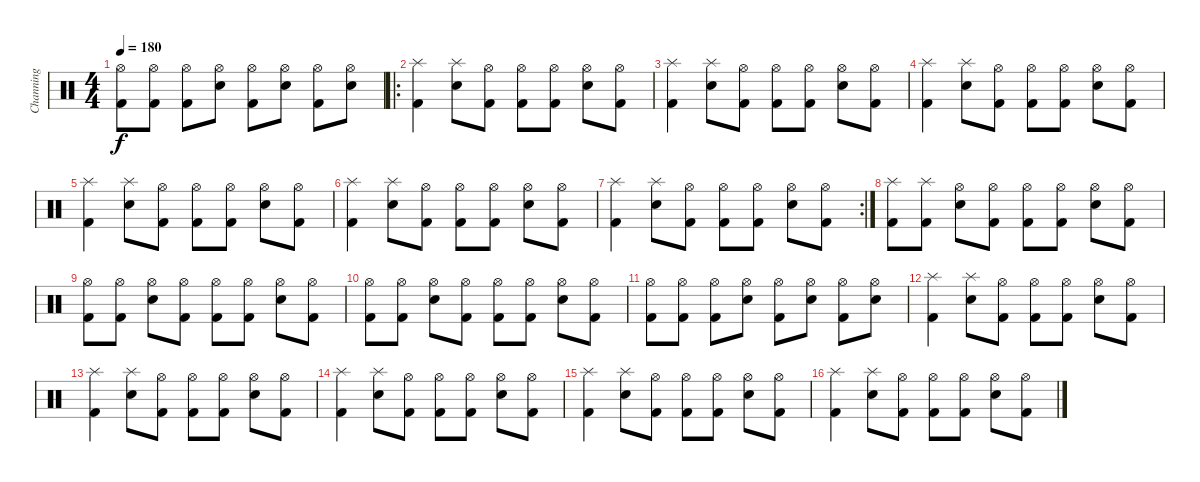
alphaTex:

\track ("Channing" "Channing") {instrument percussion}
\staff {score}
\articulation defaults
\ts (4 4)
\tempo 180
\clef neutral
\ks c
("Hi-Hat (open)" "Kick (hit) 2").8{dy f} ("Hi-Hat (open)" "Kick (hit) 2").8 ("Hi-Hat (open)" "Kick (hit) 2").8 ("Hi-Hat (open)" "Snare (hit) 2").8 ("Hi-Hat (open)" "Kick (hit) 2").8 ("Hi-Hat (open)" "Snare (hit) 2").8 ("Hi-Hat (open)" "Kick (hit) 2").8 ("Hi-Hat (open)" "Snare (hit) 2").8 |
\ro
("Splash (hit)" "Kick (hit) 2").4 ("Splash (hit)" "Snare (hit) 2").8 ("Hi-Hat (open)" "Kick (hit) 2").8 ("Hi-Hat (open)" "Kick (hit) 2").8 ("Hi-Hat (open)" "Kick (hit) 2").8 ("Hi-Hat (open)" "Snare (hit) 2").8 ("Hi-Hat (open)" "Kick (hit) 2").8 |
("Splash (hit)" "Kick (hit) 2").4 ("Splash (hit)" "Snare (hit) 2").8 ("Hi-Hat (open)" "Kick (hit) 2").8 ("Hi-Hat (open)" "Kick (hit) 2").8 ("Hi-Hat (open)" "Kick (hit) 2").8 ("Hi-Hat (open)" "Snare (hit) 2").8 ("Hi-Hat (open)" "Kick (hit) 2").8 |
("Splash (hit)" "Kick (hit) 2").4 ("Splash (hit)" "Snare (hit) 2").8 ("Hi-Hat (open)" "Kick (hit) 2").8 ("Hi-Hat (open)" "Kick (hit) 2").8 ("Hi-Hat (open)" "Kick (hit) 2").8 ("Hi-Hat (open)" "Snare (hit) 2").8 ("Hi-Hat (open)" "Kick (hit) 2").8 |
("Splash (hit)" "Kick (hit) 2").4 ("Splash (hit)" "Snare (hit) 2").8 ("Hi-Hat (open)" "Kick (hit) 2").8 ("Hi-Hat (open)" "Kick (hit) 2").8 ("Hi-Hat (open)" "Kick (hit) 2").8 ("Hi-Hat (open)" "Snare (hit) 2").8 ("Hi-Hat (open)" "Kick (hit) 2").8 |
("Splash (hit)" "Kick (hit) 2").4 ("Splash (hit)" "Snare (hit) 2").8 ("Hi-Hat (open)" "Kick (hit) 2").8 ("Hi-Hat (open)" "Kick (hit) 2").8 ("Hi-Hat (open)" "Kick (hit) 2").8 ("Hi-Hat (open)" "Snare (hit) 2").8 ("Hi-Hat (open)" "Kick (hit) 2").8 |
\rc 2
("Splash (hit)" "Kick (hit) 2").4 ("Splash (hit)" "Snare (hit) 2").8 ("Hi-Hat (open)" "Kick (hit) 2").8 ("Hi-Hat (open)" "Kick (hit) 2").8 ("Hi-Hat (open)" "Kick (hit) 2").8 ("Hi-Hat (open)" "Snare (hit) 2").8 ("Hi-Hat (open)" "Kick (hit) 2").8 |
("Splash (hit)" "Kick (hit) 2").8 ("Splash (hit)" "Kick (hit) 2").8 ("Hi-Hat (open)" "Snare (hit) 2").8 ("Hi-Hat (open)" "Kick (hit) 2").8 ("Hi-Hat (open)" "Kick (hit) 2").8 ("Hi-Hat (open)" "Kick (hit) 2").8 ("Hi-Hat (open)" "Snare (hit) 2").8 ("Hi-Hat (open)" "Kick (hit) 2").8 |
("Hi-Hat (open)" "Kick (hit) 2").8 ("Hi-Hat (open)" "Kick (hit) 2").8 ("Hi-Hat (open)" "Snare (hit) 2").8 ("Hi-Hat (open)" "Kick (hit) 2").8 ("Hi-Hat (open)" "Kick (hit) 2").8 ("Hi-Hat (open)" "Kick (hit) 2").8 ("Hi-Hat (open)" "Snare (hit) 2").8 ("Hi-Hat (open)" "Kick (hit) 2").8 |
("Hi-Hat (open)" "Kick (hit) 2").8 ("Hi-Hat (open)" "Kick (hit) 2").8 ("Hi-Hat (open)" "Snare (hit) 2").8 ("Hi-Hat (open)" "Kick (hit) 2").8 ("Hi-Hat (open)" "Kick (hit) 2").8 ("Hi-Hat (open)" "Kick (hit) 2").8 ("Hi-Hat (open)" "Snare (hit) 2").8 ("Hi-Hat (open)" "Kick (hit) 2").8 |
("Hi-Hat (open)" "Kick (hit) 2").8 ("Hi-Hat (open)" "Kick (hit) 2").8 ("Hi-Hat (open)" "Kick (hit) 2").8 ("Hi-Hat (open)" "Snare (hit) 2").8 ("Hi-Hat (open)" "Kick (hit) 2").8 ("Hi-Hat (open)" "Snare (hit) 2").8 ("Hi-Hat (open)" "Kick (hit) 2").8 ("Hi-Hat (open)" "Snare (hit) 2").8 |
("Splash (hit)" "Kick (hit) 2").4 ("Splash (hit)" "Snare (hit) 2").8 ("Hi-Hat (open)" "Kick (hit) 2").8 ("Hi-Hat (open)" "Kick (hit) 2").8 ("Hi-Hat (open)" "Kick (hit) 2").8 ("Hi-Hat (open)" "Snare (hit) 2").8 ("Hi-Hat (open)" "Kick (hit) 2").8 |
("Splash (hit)" "Kick (hit) 2").4 ("Splash (hit)" "Snare (hit) 2").8 ("Hi-Hat (open)" "Kick (hit) 2").8 ("Hi-Hat (open)" "Kick (hit) 2").8 ("Hi-Hat (open)" "Kick (hit) 2").8 ("Hi-Hat (open)" "Snare (hit) 2").8 ("Hi-Hat (open)" "Kick (hit) 2").8 |
("Splash (hit)" "Kick (hit) 2").4 ("Splash (hit)" "Snare (hit) 2").8 ("Hi-Hat (open)" "Kick (hit) 2").8 ("Hi-Hat (open)" "Kick (hit) 2").8 ("Hi-Hat (open)" "Kick (hit) 2").8 ("Hi-Hat (open)" "Snare (hit) 2").8 ("Hi-Hat (open)" "Kick (hit) 2").8 |
("Splash (hit)" "Kick (hit) 2").4 ("Splash (hit)" "Snare (hit) 2").8 ("Hi-Hat (open)" "Kick (hit) 2").8 ("Hi-Hat (open)" "Kick (hit) 2").8 ("Hi-Hat (open)" "Kick (hit) 2").8 ("Hi-Hat (open)" "Snare (hit) 2").8 ("Hi-Hat (open)" "Kick (hit) 2").8 |
("Splash (hit)" "Kick (hit) 2").4 ("Splash (hit)" "Snare (hit) 2").8 ("Hi-Hat (open)" "Kick (hit) 2").8 ("Hi-Hat (open)" "Kick (hit) 2").8 ("Hi-Hat (open)" "Kick (hit) 2").8 ("Hi-Hat (open)" "Snare (hit) 2").8 ("Hi-Hat (open)" "Kick (hit) 2").8
